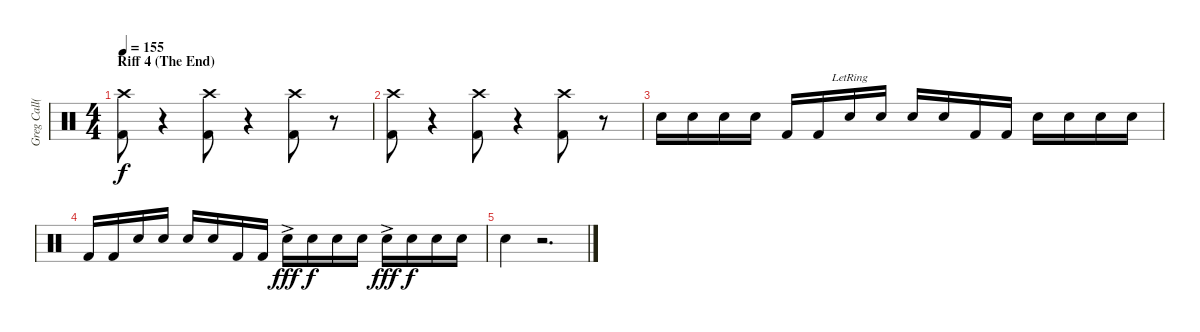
\track ("Greg Call(Drums)" "Greg Call(") {instrument percussion}
\staff {score}
\articulation defaults
\ts (4 4)
\section ("" "Riff 4 (The End)")
\tempo 155
\clef neutral
\ks c
("Crash high (hit)" "Kick (hit) 2").8{dy f} r.4{volume 0} ("Crash high (hit)" "Kick (hit) 2").8{volume 13} r.4{volume 0} ("Crash high (hit)" "Kick (hit) 2").8{volume 13} r.8{volume 0} |
("Crash high (hit)" "Kick (hit) 2").8{volume 13} r.4{volume 0} ("Crash high (hit)" "Kick (hit) 2").8{volume 13} r.4{volume 0} ("Crash high (hit)" "Kick (hit) 2").8{volume 13} r.8 |
"Snare (hit) 2".16 "Snare (hit) 2".16 "Snare (hit) 2".16 "Snare (hit) 2".16 "Kick (hit) 2".16 "Kick (hit) 2".16 "Snare (hit) 2"{lr}.16 "Snare (hit) 2".16 "Snare (hit) 2".16 "Snare (hit) 2".16 "Kick (hit) 2".16 "Kick (hit) 2".16 "Snare (hit) 2".16 "Snare (hit) 2".16 "Snare (hit) 2".16 "Snare (hit) 2".16 |
"Kick (hit) 2".16 "Kick (hit) 2".16 "Snare (hit) 2".16 "Snare (hit) 2".16 "Snare (hit) 2".16 "Snare (hit) 2".16 "Kick (hit) 2".16 "Kick (hit) 2".16 "Snare (hit) 2"{ac}.16{dy fff} "Snare (hit) 2".16{dy f} "Snare (hit) 2".16 "Snare (hit) 2".16 "Snare (hit) 2"{ac}.16{dy fff} "Snare (hit) 2".16{dy f} "Snare (hit) 2".16 "Snare (hit) 2".16 |
"Snare (hit) 2".4 r.2{d volume 0}
